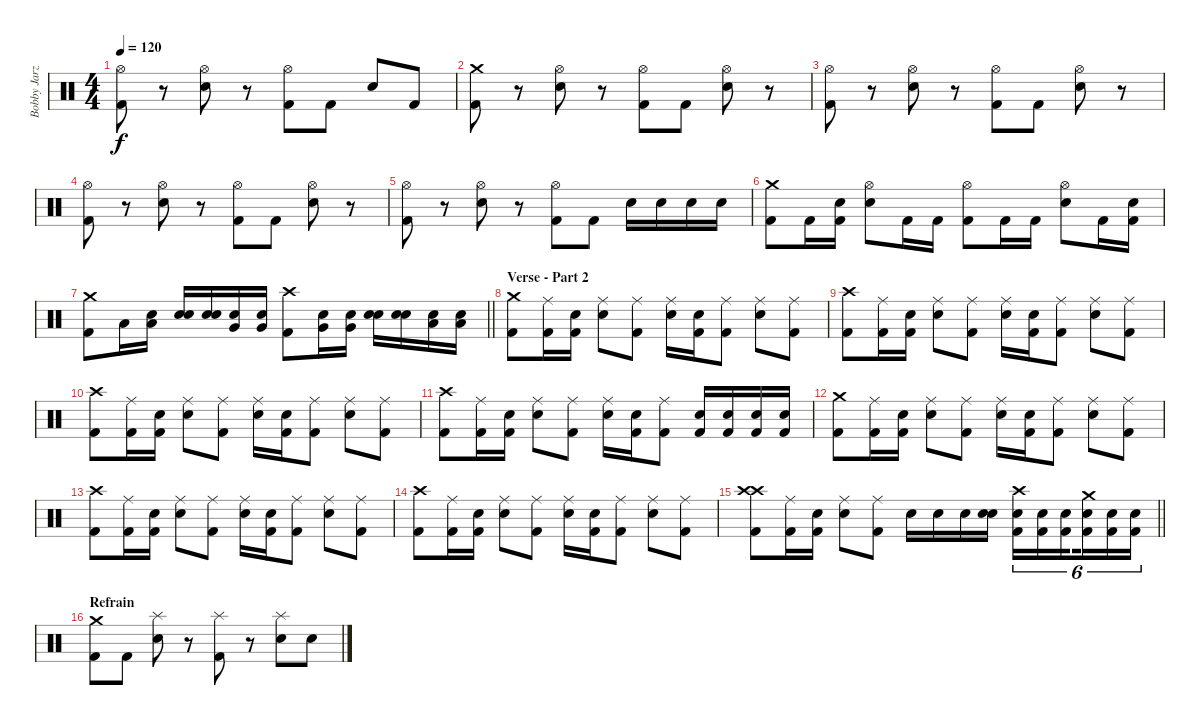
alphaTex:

\track ("Bobby Jarzombek - Drums" "Bobby Jarz") {instrument percussion}
\staff {score}
\articulation defaults
\ts (4 4)
\tempo 120
\clef neutral
\ks c
("Hi-Hat (open)" "Kick (hit) 2").8{dy f} r.8 ("Hi-Hat (open)" "Electric Snare (hit)").8 r.8 ("Hi-Hat (open)" "Kick (hit) 2").8 "Kick (hit) 2".8 "Electric Snare (hit)".8 "Kick (hit) 2".8 |
("Crash medium (hit)" "Kick (hit) 2").8 r.8 ("Hi-Hat (open)" "Electric Snare (hit)").8 r.8 ("Hi-Hat (open)" "Kick (hit) 2").8 "Kick (hit) 2".8 ("Hi-Hat (open)" "Electric Snare (hit)").8 r.8 |
("Hi-Hat (open)" "Kick (hit) 2").8 r.8 ("Hi-Hat (open)" "Electric Snare (hit)").8 r.8 ("Hi-Hat (open)" "Kick (hit) 2").8 "Kick (hit) 2".8 ("Hi-Hat (open)" "Electric Snare (hit)").8 r.8 |
("Hi-Hat (open)" "Kick (hit) 2").8 r.8 ("Hi-Hat (open)" "Electric Snare (hit)").8 r.8 ("Hi-Hat (open)" "Kick (hit) 2").8 "Kick (hit) 2".8 ("Hi-Hat (open)" "Electric Snare (hit)").8 r.8 |
("Hi-Hat (open)" "Kick (hit) 2").8 r.8 ("Hi-Hat (open)" "Electric Snare (hit)").8 r.8 ("Hi-Hat (open)" "Kick (hit) 2").8 "Kick (hit) 2".8 "Electric Snare (hit)".16 "Electric Snare (hit)".16 "Electric Snare (hit)".16 "Electric Snare (hit)".16 |
("Crash medium (hit)" "Kick (hit) 2").8 "Kick (hit) 2".16 ("Snare (hit)" "Kick (hit) 2").16 ("Hi-Hat (open)" "Electric Snare (hit)").8 "Kick (hit) 2".16 "Kick (hit) 2".16 ("Hi-Hat (open)" "Kick (hit) 2").8 "Kick (hit) 2".16 "Kick (hit) 2".16 ("Hi-Hat (open)" "Electric Snare (hit)").8 "Kick (hit) 2".16 ("Snare (hit)" "Kick (hit) 2").16 |
\barLineRight lightlight
("Crash medium (hit)" "Kick (hit) 2").8 "Low Tom (hit)".16 ("Snare (hit)" "Low Tom (hit)").16 ("Snare (hit)" "Electric Snare (hit)").16 ("Snare (hit)" "Electric Snare (hit)").16 ("Snare (hit)" "Very Low Tom (hit)").16 ("Snare (hit)" "Very Low Tom (hit)").16 ("Crash high (hit)" "Kick (hit) 2").8 ("Snare (hit)" "Very Low Tom (hit)").16 ("Snare (hit)" "Very Low Tom (hit)").16 ("Snare (hit)" "Electric Snare (hit)").16 ("Snare (hit)" "Electric Snare (hit)").16 ("Snare (hit)" "Low Floor Tom (hit)").16 ("Snare (hit)" "Low Floor Tom (hit)").16 |
\section ("" "Verse - Part 2")
("Crash medium (hit)" "Kick (hit) 2").8 ("Ride (middle)" "Kick (hit) 2").16 ("Snare (hit)" "Kick (hit) 2").16 ("Ride (middle)" "Electric Snare (hit)").8 ("Ride (middle)" "Kick (hit) 2").8 ("Ride (middle)" "Electric Snare (hit)").16 ("Snare (hit)" "Kick (hit) 2").16 ("Ride (middle)" "Kick (hit) 2").8 ("Ride (middle)" "Electric Snare (hit)").8 ("Ride (middle)" "Kick (hit) 2").8 |
("Crash high (hit)" "Kick (hit) 2").8 ("Ride (middle)" "Kick (hit) 2").16 ("Snare (hit)" "Kick (hit) 2").16 ("Ride (middle)" "Electric Snare (hit)").8 ("Ride (middle)" "Kick (hit) 2").8 ("Ride (middle)" "Electric Snare (hit)").16 ("Snare (hit)" "Kick (hit) 2").16 ("Ride (middle)" "Kick (hit) 2").8 ("Ride (middle)" "Electric Snare (hit)").8 ("Ride (middle)" "Kick (hit) 2").8 |
("Crash high (hit)" "Kick (hit) 2").8 ("Ride (middle)" "Kick (hit) 2").16 ("Snare (hit)" "Kick (hit) 2").16 ("Ride (middle)" "Electric Snare (hit)").8 ("Ride (middle)" "Kick (hit) 2").8 ("Ride (middle)" "Electric Snare (hit)").16 ("Snare (hit)" "Kick (hit) 2").16 ("Ride (middle)" "Kick (hit) 2").8 ("Ride (middle)" "Electric Snare (hit)").8 ("Ride (middle)" "Kick (hit) 2").8 |
("Crash high (hit)" "Kick (hit) 2").8 ("Ride (middle)" "Kick (hit) 2").16 ("Snare (hit)" "Kick (hit) 2").16 ("Ride (middle)" "Electric Snare (hit)").8 ("Ride (middle)" "Kick (hit) 2").8 ("Ride (middle)" "Electric Snare (hit)").16 ("Snare (hit)" "Kick (hit) 2").16 ("Ride (middle)" "Kick (hit) 2").8 ("Electric Snare (hit)" "Kick (hit) 2").16 ("Electric Snare (hit)" "Kick (hit) 2").16 ("Electric Snare (hit)" "Kick (hit) 2").16 ("Electric Snare (hit)" "Kick (hit) 2").16 |
("Crash medium (hit)" "Kick (hit) 2").8 ("Ride (middle)" "Kick (hit) 2").16 ("Snare (hit)" "Kick (hit) 2").16 ("Ride (middle)" "Electric Snare (hit)").8 ("Ride (middle)" "Kick (hit) 2").8 ("Ride (middle)" "Electric Snare (hit)").16 ("Snare (hit)" "Kick (hit) 2").16 ("Ride (middle)" "Kick (hit) 2").8 ("Ride (middle)" "Electric Snare (hit)").8 ("Ride (middle)" "Kick (hit) 2").8 |
("Crash high (hit)" "Kick (hit) 2").8 ("Ride (middle)" "Kick (hit) 2").16 ("Snare (hit)" "Kick (hit) 2").16 ("Ride (middle)" "Electric Snare (hit)").8 ("Ride (middle)" "Kick (hit) 2").8 ("Ride (middle)" "Electric Snare (hit)").16 ("Snare (hit)" "Kick (hit) 2").16 ("Ride (middle)" "Kick (hit) 2").8 ("Ride (middle)" "Electric Snare (hit)").8 ("Ride (middle)" "Kick (hit) 2").8 |
("Crash high (hit)" "Kick (hit) 2").8 ("Ride (middle)" "Kick (hit) 2").16 ("Snare (hit)" "Kick (hit) 2").16 ("Ride (middle)" "Electric Snare (hit)").8 ("Ride (middle)" "Kick (hit) 2").8 ("Ride (middle)" "Electric Snare (hit)").16 ("Snare (hit)" "Kick (hit) 2").16 ("Ride (middle)" "Kick (hit) 2").8 ("Ride (middle)" "Electric Snare (hit)").8 ("Ride (middle)" "Kick (hit) 2").8 |
\barLineRight lightlight
("Crash high (hit)" "Crash high (hit)" "Kick (hit) 2").8 ("Ride (middle)" "Kick (hit) 2").16 ("Snare (hit)" "Kick (hit) 2").16 ("Ride (middle)" "Electric Snare (hit)").8 ("Ride (middle)" "Kick (hit) 2").8 "Electric Snare (hit)".16 "Electric Snare (hit)".16 "Electric Snare (hit)".16 ("Snare (hit)" "Electric Snare (hit)").16 ("Crash high (hit)" "Electric Snare (hit)" "Kick (hit) 2").16{tu (6 4)} ("Electric Snare (hit)" "Kick (hit) 2").16{tu (6 4)} ("Electric Snare (hit)" "Kick (hit) 2").16{tu (6 4) beam splitsecondary} ("Crash medium (hit)" "Electric Snare (hit)" "Kick (hit) 2").16{tu (6 4)} ("Electric Snare (hit)" "Kick (hit) 2").16{tu (6 4)} ("Electric Snare (hit)" "Kick (hit) 2").16{tu (6 4)} |
\section ("" "Refrain")
("Crash medium (hit)" "Kick (hit) 2").8 "Kick (hit) 2".8 ("Splash (hit)" "Electric Snare (hit)").8 r.8 ("Splash (hit)" "Kick (hit) 2").8 r.8 ("Splash (hit)" "Electric Snare (hit)").8 "Snare (hit)".8
